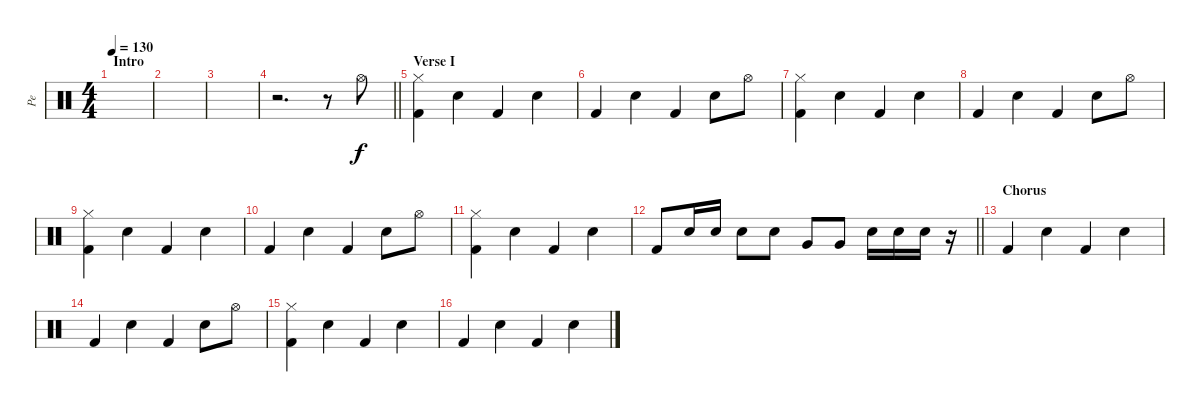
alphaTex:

\track ("Pe" "Pe") {instrument percussion}
\staff {score}
\articulation defaults
\ts (4 4)
\section ("" "Intro")
\tempo 130
\clef neutral
\ks c
|
|
|
\barLineRight lightlight
r.2{d} r.8 "Hi-Hat (open)".8 |
\section ("" "Verse I")
("Hi-Hat (closed)" "Kick (hit) 2").4 "Electric Snare (hit)".4 "Kick (hit) 2".4 "Electric Snare (hit)".4 |
"Kick (hit) 2".4 "Electric Snare (hit)".4 "Kick (hit) 2".4 "Electric Snare (hit)".8 "Hi-Hat (open)".8 |
("Hi-Hat (closed)" "Kick (hit) 2").4 "Electric Snare (hit)".4 "Kick (hit) 2".4 "Electric Snare (hit)".4 |
"Kick (hit) 2".4 "Electric Snare (hit)".4 "Kick (hit) 2".4 "Electric Snare (hit)".8 "Hi-Hat (open)".8 |
("Hi-Hat (closed)" "Kick (hit) 2").4 "Electric Snare (hit)".4 "Kick (hit) 2".4 "Electric Snare (hit)".4 |
"Kick (hit) 2".4 "Electric Snare (hit)".4 "Kick (hit) 2".4 "Electric Snare (hit)".8 "Hi-Hat (open)".8 |
("Hi-Hat (closed)" "Kick (hit) 2").4 "Electric Snare (hit)".4 "Kick (hit) 2".4 "Electric Snare (hit)".4 |
\barLineRight lightlight "Kick (hit) 2".8 "Electric Snare (hit)".16 "Electric Snare (hit)".16 "Electric Snare (hit)".8 "Electric Snare (hit)".8 "Very Low Tom (hit)".8 "Very Low Tom (hit)".8 "Electric Snare (hit)".16 "Electric Snare (hit)".16 "Electric Snare (hit)".16
r.16 |
\section ("" "Chorus")
"Kick (hit) 2".4 "Electric Snare (hit)".4 "Kick (hit) 2".4 "Electric Snare (hit)".4 |
"Kick (hit) 2".4 "Electric Snare (hit)".4 "Kick (hit) 2".4 "Electric Snare (hit)".8 "Hi-Hat (open)".8 |
("Hi-Hat (closed)" "Kick (hit) 2").4 "Electric Snare (hit)".4 "Kick (hit) 2".4 "Electric Snare (hit)".4 |
"Kick (hit) 2".4 "Electric Snare (hit)".4 "Kick (hit) 2".4 "Electric Snare (hit)".4
